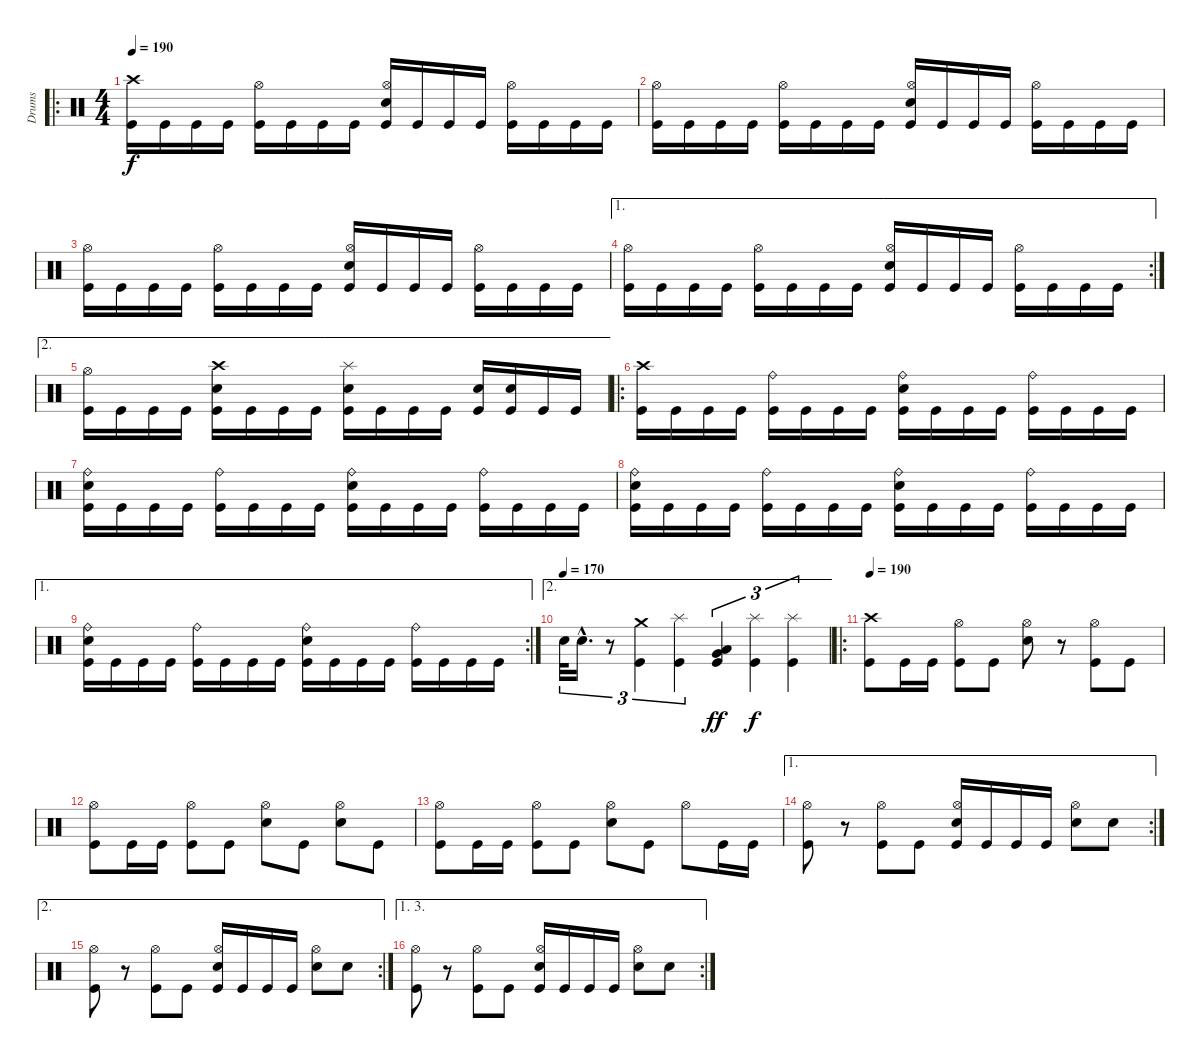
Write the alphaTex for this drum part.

\track ("Drums" "Drums") {instrument percussion}
\staff {score}
\articulation defaults
\ro
\ts (4 4)
\tempo 190
\clef neutral
\ks c
("Crash high (hit)" "Kick (hit)").16{dy f} "Kick (hit)".16 "Kick (hit)".16 "Kick (hit)".16 ("Hi-Hat (open)" "Kick (hit)").16 "Kick (hit)".16 "Kick (hit)".16 "Kick (hit)".16 ("Hi-Hat (open)" "Electric Snare (hit)" "Kick (hit)").16 "Kick (hit)".16 "Kick (hit)".16 "Kick (hit)".16 ("Hi-Hat (open)" "Kick (hit)").16 "Kick (hit)".16 "Kick (hit)".16 "Kick (hit)".16 |
("Hi-Hat (open)" "Kick (hit)").16 "Kick (hit)".16 "Kick (hit)".16 "Kick (hit)".16 ("Hi-Hat (open)" "Kick (hit)").16 "Kick (hit)".16 "Kick (hit)".16 "Kick (hit)".16 ("Hi-Hat (open)" "Electric Snare (hit)" "Kick (hit)").16 "Kick (hit)".16 "Kick (hit)".16 "Kick (hit)".16 ("Hi-Hat (open)" "Kick (hit)").16 "Kick (hit)".16 "Kick (hit)".16 "Kick (hit)".16 |
("Hi-Hat (open)" "Kick (hit)").16 "Kick (hit)".16 "Kick (hit)".16 "Kick (hit)".16 ("Hi-Hat (open)" "Kick (hit)").16 "Kick (hit)".16 "Kick (hit)".16 "Kick (hit)".16 ("Hi-Hat (open)" "Electric Snare (hit)" "Kick (hit)").16 "Kick (hit)".16 "Kick (hit)".16 "Kick (hit)".16 ("Hi-Hat (open)" "Kick (hit)").16 "Kick (hit)".16 "Kick (hit)".16 "Kick (hit)".16 |
\ae 1
\rc 2
("Hi-Hat (open)" "Kick (hit)").16 "Kick (hit)".16 "Kick (hit)".16 "Kick (hit)".16 ("Hi-Hat (open)" "Kick (hit)").16 "Kick (hit)".16 "Kick (hit)".16 "Kick (hit)".16 ("Hi-Hat (open)" "Electric Snare (hit)" "Kick (hit)").16 "Kick (hit)".16 "Kick (hit)".16 "Kick (hit)".16 ("Hi-Hat (open)" "Kick (hit)").16 "Kick (hit)".16 "Kick (hit)".16 "Kick (hit)".16 |
\ae 2
("Hi-Hat (open)" "Kick (hit)").16 "Kick (hit)".16 "Kick (hit)".16 "Kick (hit)".16 ("Crash high (hit)" "Electric Snare (hit)" "Kick (hit)").16 "Kick (hit)".16 "Kick (hit)".16 "Kick (hit)".16 ("Splash (hit)" "Electric Snare (hit)" "Kick (hit)").16 "Kick (hit)".16 "Kick (hit)".16 "Kick (hit)".16 ("Electric Snare (hit)" "Kick (hit)").16 ("Electric Snare (hit)" "Kick (hit)").16 "Kick (hit)".16 "Kick (hit)".16 |
\ro
("Crash high (hit)" "Kick (hit)").16 "Kick (hit)".16 "Kick (hit)".16 "Kick (hit)".16 ("Ride (bell)" "Kick (hit)").16 "Kick (hit)".16 "Kick (hit)".16 "Kick (hit)".16 ("Ride (bell)" "Electric Snare (hit)" "Kick (hit)").16 "Kick (hit)".16 "Kick (hit)".16 "Kick (hit)".16 ("Ride (bell)" "Kick (hit)").16 "Kick (hit)".16 "Kick (hit)".16 "Kick (hit)".16 |
("Ride (bell)" "Electric Snare (hit)" "Kick (hit)").16 "Kick (hit)".16 "Kick (hit)".16 "Kick (hit)".16 ("Ride (bell)" "Kick (hit)").16 "Kick (hit)".16 "Kick (hit)".16 "Kick (hit)".16 ("Ride (bell)" "Electric Snare (hit)" "Kick (hit)").16 "Kick (hit)".16 "Kick (hit)".16 "Kick (hit)".16 ("Ride (bell)" "Kick (hit)").16 "Kick (hit)".16 "Kick (hit)".16 "Kick (hit)".16 |
("Ride (bell)" "Electric Snare (hit)" "Kick (hit)").16 "Kick (hit)".16 "Kick (hit)".16 "Kick (hit)".16 ("Ride (bell)" "Kick (hit)").16 "Kick (hit)".16 "Kick (hit)".16 "Kick (hit)".16 ("Ride (bell)" "Electric Snare (hit)" "Kick (hit)").16 "Kick (hit)".16 "Kick (hit)".16 "Kick (hit)".16 ("Ride (bell)" "Kick (hit)").16 "Kick (hit)".16 "Kick (hit)".16 "Kick (hit)".16 |
\ae 1
\rc 2
("Ride (bell)" "Electric Snare (hit)" "Kick (hit)").16 "Kick (hit)".16 "Kick (hit)".16 "Kick (hit)".16 ("Ride (bell)" "Kick (hit)").16 "Kick (hit)".16 "Kick (hit)".16 "Kick (hit)".16 ("Ride (bell)" "Electric Snare (hit)" "Kick (hit)").16 "Kick (hit)".16 "Kick (hit)".16 "Kick (hit)".16 ("Ride (bell)" "Kick (hit)").16 "Kick (hit)".16 "Kick (hit)".16 "Kick (hit)".16 |
\ae 2
\tempo (170)
"Electric Snare (hit)".32{tu (3 2)} "Electric Snare (hit)"{hac}.16{d tu (3 2)} r.8{tu (3 2)} ("Crash medium (hit)" "Kick (hit)").4{tu (3 2)} ("Splash (hit)" "Kick (hit)").4{tu (3 2)} ("Low Floor Tom (hit)" "Very Low Tom (hit)" "Kick (hit)").4{tu (3 2) dy ff} ("Splash (hit)" "Kick (hit)").4{tu (3 2) dy f} ("Splash (hit)" "Kick (hit)").4{tu (3 2)} |
\ro
\tempo 190
("Crash high (hit)" "Kick (hit)").8 "Kick (hit)".16 "Kick (hit)".16 ("Hi-Hat (open)" "Kick (hit)").8 "Kick (hit)".8 ("Hi-Hat (open)" "Electric Snare (hit)").8 r.8 ("Hi-Hat (open)" "Kick (hit)").8 "Kick (hit)".8 |
("Hi-Hat (open)" "Kick (hit)").8 "Kick (hit)".16 "Kick (hit)".16 ("Hi-Hat (open)" "Kick (hit)").8 "Kick (hit)".8 ("Hi-Hat (open)" "Electric Snare (hit)").8 "Kick (hit)".8 ("Hi-Hat (open)" "Electric Snare (hit)").8 "Kick (hit)".8 |
("Hi-Hat (open)" "Kick (hit)").8 "Kick (hit)".16 "Kick (hit)".16 ("Hi-Hat (open)" "Kick (hit)").8 "Kick (hit)".8 ("Hi-Hat (open)" "Electric Snare (hit)").8 "Kick (hit)".8 "Hi-Hat (open)".8 "Kick (hit)".16 "Kick (hit)".16 |
\ae 1
\rc 2
("Hi-Hat (open)" "Kick (hit)").8 r.8 ("Hi-Hat (open)" "Kick (hit)").8 "Kick (hit)".8 ("Hi-Hat (open)" "Electric Snare (hit)" "Kick (hit)").16 "Kick (hit)".16 "Kick (hit)".16 "Kick (hit)".16 ("Hi-Hat (open)" "Electric Snare (hit)").8 "Electric Snare (hit)".8 |
\ae 2
\rc 2
("Hi-Hat (open)" "Kick (hit)").8 r.8 ("Hi-Hat (open)" "Kick (hit)").8 "Kick (hit)".8 ("Hi-Hat (open)" "Electric Snare (hit)" "Kick (hit)").16 "Kick (hit)".16 "Kick (hit)".16 "Kick (hit)".16 ("Hi-Hat (open)" "Electric Snare (hit)").8 "Electric Snare (hit)".8 |
\ae (1 3)
\rc 2
("Hi-Hat (open)" "Kick (hit)").8 r.8 ("Hi-Hat (open)" "Kick (hit)").8 "Kick (hit)".8 ("Hi-Hat (open)" "Electric Snare (hit)" "Kick (hit)").16 "Kick (hit)".16 "Kick (hit)".16 "Kick (hit)".16 ("Hi-Hat (open)" "Electric Snare (hit)").8 "Electric Snare (hit)".8
